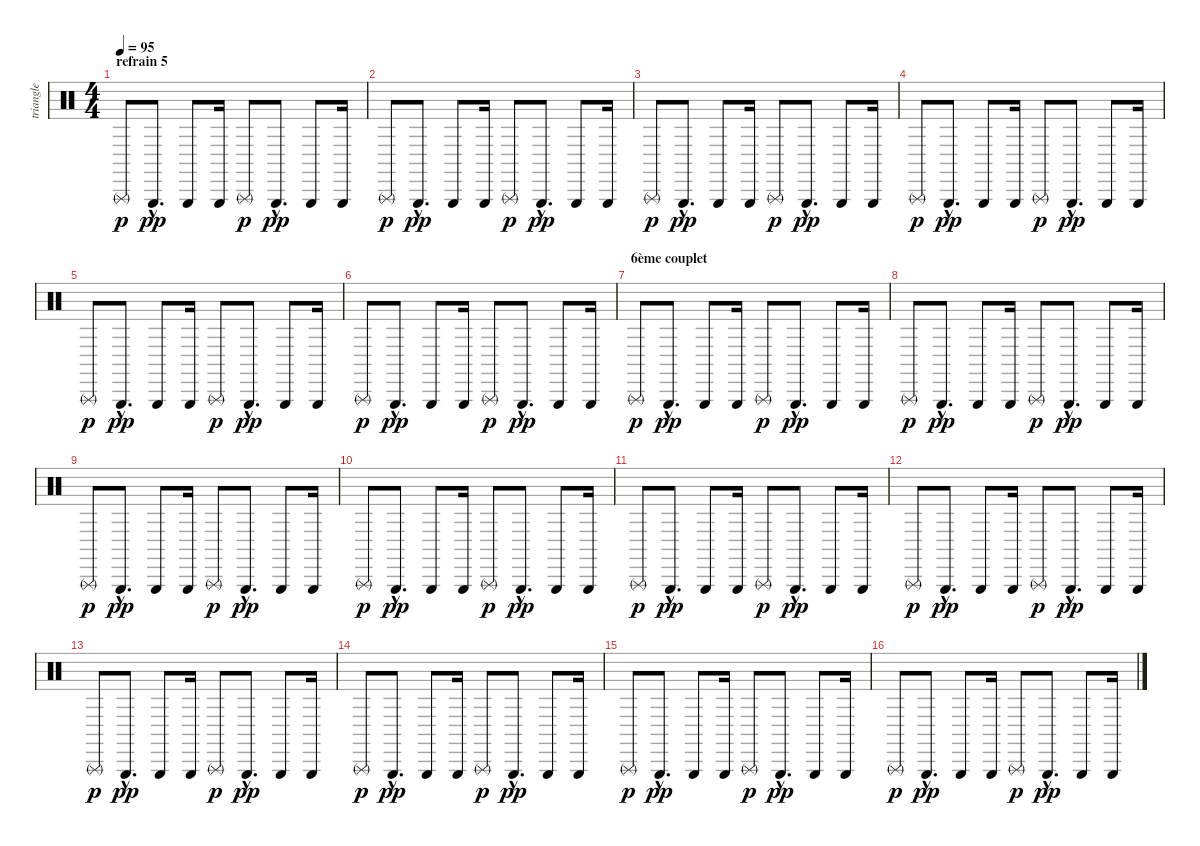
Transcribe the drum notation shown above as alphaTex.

\track ("triangle" "triangle") {instrument percussion}
\staff {score}
\articulation defaults
\ts (4 4)
\section ("" "refrain 5")
\tempo 95
\clef neutral
\ks c "Triangle (rnute)".8{dy p} "Triangle (hit)"{hac}.8{d dy pp} "Triangle (hit)".8 "Triangle (hit)".16 "Triangle (rnute)".8{dy p} "Triangle (hit)"{hac}.8{d dy pp} "Triangle (hit)".8 "Triangle (hit)".16
|
"Triangle (rnute)".8{dy p} "Triangle (hit)"{hac}.8{d dy pp} "Triangle (hit)".8 "Triangle (hit)".16 "Triangle (rnute)".8{dy p} "Triangle (hit)"{hac}.8{d dy pp} "Triangle (hit)".8 "Triangle (hit)".16 |
"Triangle (rnute)".8{dy p} "Triangle (hit)"{hac}.8{d dy pp} "Triangle (hit)".8 "Triangle (hit)".16 "Triangle (rnute)".8{dy p} "Triangle (hit)"{hac}.8{d dy pp} "Triangle (hit)".8 "Triangle (hit)".16 |
"Triangle (rnute)".8{dy p} "Triangle (hit)"{hac}.8{d dy pp} "Triangle (hit)".8 "Triangle (hit)".16 "Triangle (rnute)".8{dy p} "Triangle (hit)"{hac}.8{d dy pp} "Triangle (hit)".8 "Triangle (hit)".16 |
"Triangle (rnute)".8{dy p} "Triangle (hit)"{hac}.8{d dy pp} "Triangle (hit)".8 "Triangle (hit)".16 "Triangle (rnute)".8{dy p} "Triangle (hit)"{hac}.8{d dy pp} "Triangle (hit)".8 "Triangle (hit)".16 |
"Triangle (rnute)".8{dy p} "Triangle (hit)"{hac}.8{d dy pp} "Triangle (hit)".8 "Triangle (hit)".16 "Triangle (rnute)".8{dy p} "Triangle (hit)"{hac}.8{d dy pp} "Triangle (hit)".8 "Triangle (hit)".16 |
\section ("" "6ème couplet")
"Triangle (rnute)".8{dy p} "Triangle (hit)"{hac}.8{d dy pp} "Triangle (hit)".8 "Triangle (hit)".16 "Triangle (rnute)".8{dy p} "Triangle (hit)"{hac}.8{d dy pp} "Triangle (hit)".8 "Triangle (hit)".16 |
"Triangle (rnute)".8{dy p} "Triangle (hit)"{hac}.8{d dy pp} "Triangle (hit)".8 "Triangle (hit)".16 "Triangle (rnute)".8{dy p} "Triangle (hit)"{hac}.8{d dy pp} "Triangle (hit)".8 "Triangle (hit)".16 |
"Triangle (rnute)".8{dy p} "Triangle (hit)"{hac}.8{d dy pp} "Triangle (hit)".8 "Triangle (hit)".16 "Triangle (rnute)".8{dy p} "Triangle (hit)"{hac}.8{d dy pp} "Triangle (hit)".8 "Triangle (hit)".16 |
"Triangle (rnute)".8{dy p} "Triangle (hit)"{hac}.8{d dy pp} "Triangle (hit)".8 "Triangle (hit)".16 "Triangle (rnute)".8{dy p} "Triangle (hit)"{hac}.8{d dy pp} "Triangle (hit)".8 "Triangle (hit)".16 |
"Triangle (rnute)".8{dy p} "Triangle (hit)"{hac}.8{d dy pp} "Triangle (hit)".8 "Triangle (hit)".16 "Triangle (rnute)".8{dy p} "Triangle (hit)"{hac}.8{d dy pp} "Triangle (hit)".8 "Triangle (hit)".16 |
"Triangle (rnute)".8{dy p} "Triangle (hit)"{hac}.8{d dy pp} "Triangle (hit)".8 "Triangle (hit)".16 "Triangle (rnute)".8{dy p} "Triangle (hit)"{hac}.8{d dy pp} "Triangle (hit)".8 "Triangle (hit)".16 |
"Triangle (rnute)".8{dy p} "Triangle (hit)"{hac}.8{d dy pp} "Triangle (hit)".8 "Triangle (hit)".16 "Triangle (rnute)".8{dy p} "Triangle (hit)"{hac}.8{d dy pp} "Triangle (hit)".8 "Triangle (hit)".16 |
"Triangle (rnute)".8{dy p} "Triangle (hit)"{hac}.8{d dy pp} "Triangle (hit)".8 "Triangle (hit)".16 "Triangle (rnute)".8{dy p} "Triangle (hit)"{hac}.8{d dy pp} "Triangle (hit)".8 "Triangle (hit)".16 |
"Triangle (rnute)".8{dy p} "Triangle (hit)"{hac}.8{d dy pp} "Triangle (hit)".8 "Triangle (hit)".16 "Triangle (rnute)".8{dy p} "Triangle (hit)"{hac}.8{d dy pp} "Triangle (hit)".8 "Triangle (hit)".16 |
"Triangle (rnute)".8{dy p} "Triangle (hit)"{hac}.8{d dy pp} "Triangle (hit)".8 "Triangle (hit)".16 "Triangle (rnute)".8{dy p} "Triangle (hit)"{hac}.8{d dy pp} "Triangle (hit)".8 "Triangle (hit)".16
